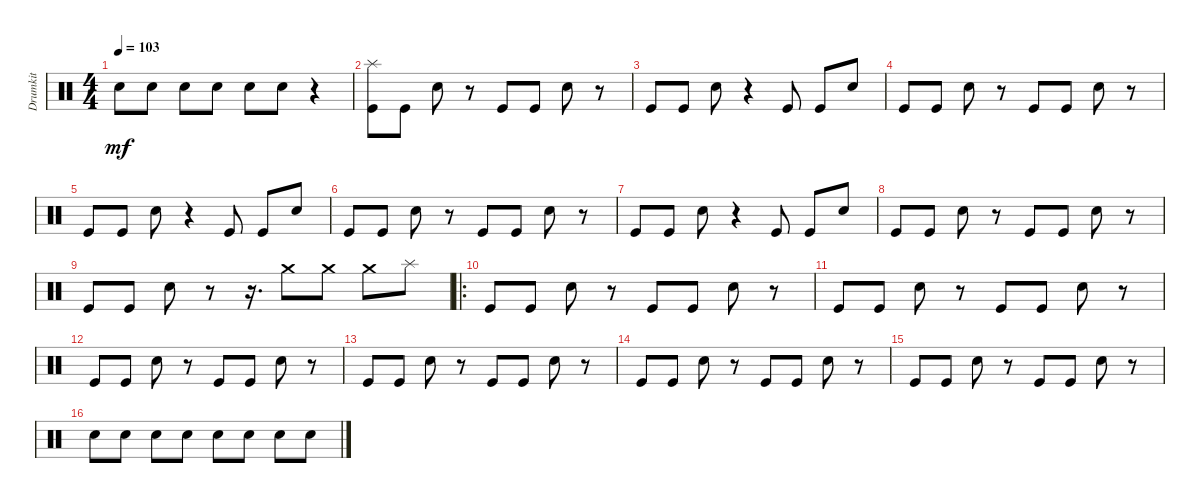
\track ("Drumkit" "Drumkit") {instrument percussion}
\staff {score}
\articulation defaults
\ts (4 4)
\tempo 103
\clef neutral
\ks c "Snare (hit) 2".8{dy mf} "Snare (hit) 2".8 "Snare (hit) 2".8 "Snare (hit) 2".8 "Snare (hit) 2".8 "Snare (hit) 2".8
r.4 |
("Kick (hit)" "Splash (hit)").8 "Kick (hit)".8 "Snare (hit) 2".8 r.8 "Kick (hit)".8 "Kick (hit)".8 "Snare (hit) 2".8 r.8 |
"Kick (hit)".8 "Kick (hit)".8 "Snare (hit) 2".8 r.4 "Kick (hit)".8 "Kick (hit)".8 "Snare (hit) 2".8 |
"Kick (hit)".8 "Kick (hit)".8 "Snare (hit) 2".8 r.8 "Kick (hit)".8 "Kick (hit)".8 "Snare (hit) 2".8 r.8 |
"Kick (hit)".8 "Kick (hit)".8 "Snare (hit) 2".8 r.4 "Kick (hit)".8 "Kick (hit)".8 "Snare (hit) 2".8 |
"Kick (hit)".8 "Kick (hit)".8 "Snare (hit) 2".8 r.8 "Kick (hit)".8 "Kick (hit)".8 "Snare (hit) 2".8 r.8 |
"Kick (hit)".8 "Kick (hit)".8 "Snare (hit) 2".8 r.4 "Kick (hit)".8 "Kick (hit)".8 "Snare (hit) 2".8 |
"Kick (hit)".8 "Kick (hit)".8 "Snare (hit) 2".8 r.8 "Kick (hit)".8 "Kick (hit)".8 "Snare (hit) 2".8 r.8 |
"Kick (hit)".8 "Kick (hit)".8 "Snare (hit) 2".8 r.8 r.16{d} "Crash medium (hit)".8 "Crash medium (hit)".8 "Crash medium (hit)".8 "Splash (hit)".8 |
\ro "Kick (hit)".8 "Kick (hit)".8 "Snare (hit) 2".8
r.8 "Kick (hit)".8 "Kick (hit)".8 "Snare (hit) 2".8 r.8 |
"Kick (hit)".8 "Kick (hit)".8 "Snare (hit) 2".8 r.8 "Kick (hit)".8 "Kick (hit)".8 "Snare (hit) 2".8 r.8 |
"Kick (hit)".8 "Kick (hit)".8 "Snare (hit) 2".8 r.8 "Kick (hit)".8 "Kick (hit)".8 "Snare (hit) 2".8 r.8 |
"Kick (hit)".8 "Kick (hit)".8 "Snare (hit) 2".8 r.8 "Kick (hit)".8 "Kick (hit)".8 "Snare (hit) 2".8 r.8 |
"Kick (hit)".8 "Kick (hit)".8 "Snare (hit) 2".8 r.8 "Kick (hit)".8 "Kick (hit)".8 "Snare (hit) 2".8 r.8 |
"Kick (hit)".8 "Kick (hit)".8 "Snare (hit) 2".8 r.8 "Kick (hit)".8 "Kick (hit)".8 "Snare (hit) 2".8 r.8 |
"Snare (hit) 2".8 "Snare (hit) 2".8 "Snare (hit) 2".8 "Snare (hit) 2".8 "Snare (hit) 2".8 "Snare (hit) 2".8 "Snare (hit) 2".8 "Snare (hit) 2".8
